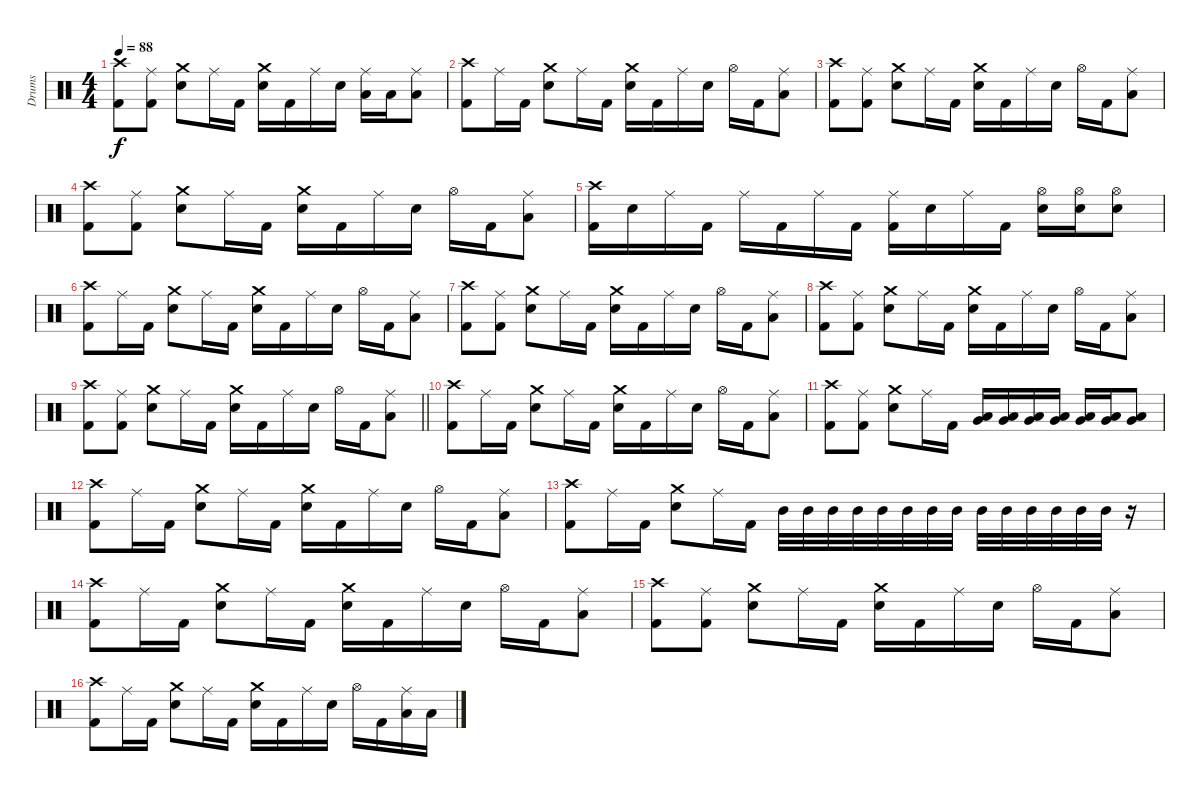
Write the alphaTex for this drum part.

\track ("Drums" "Drums") {instrument percussion}
\staff {score}
\articulation defaults
\ts (4 4)
\tempo 88
\clef neutral
\ks c
("Crash high (hit)" "Kick (hit) 2").8{dy f} ("Ride (middle)" "Kick (hit) 2").8 ("Crash medium (hit)" "Snare (hit) 2").8 "Ride (middle)".16 "Kick (hit) 2".16 ("Crash medium (hit)" "Snare (hit) 2").16 "Kick (hit) 2".16 "Ride (middle)".16 "Snare (hit) 2".16 ("Ride (middle)" "Low Tom (hit)").16 "Low Tom (hit)".16 ("Ride (middle)" "Low Tom (hit)").8 |
("Crash high (hit)" "Kick (hit) 2").8 "Ride (middle)".16 "Kick (hit) 2".16 ("Crash medium (hit)" "Snare (hit) 2").8 "Ride (middle)".16 "Kick (hit) 2".16 ("Crash medium (hit)" "Snare (hit) 2").16 "Kick (hit) 2".16 "Ride (middle)".16 "Snare (hit) 2".16 "Hi-Hat (open)".16 "Kick (hit) 2".16 ("Ride (middle)" "Low Tom (hit)").8 |
("Crash high (hit)" "Kick (hit) 2").8 ("Ride (middle)" "Kick (hit) 2").8 ("Crash medium (hit)" "Snare (hit) 2").8 "Ride (middle)".16 "Kick (hit) 2".16 ("Crash medium (hit)" "Snare (hit) 2").16 "Kick (hit) 2".16 "Ride (middle)".16 "Snare (hit) 2".16 "Hi-Hat (open)".16 "Kick (hit) 2".16 ("Ride (middle)" "Low Tom (hit)").8 |
("Crash high (hit)" "Kick (hit) 2").8 ("Ride (middle)" "Kick (hit) 2").8 ("Crash medium (hit)" "Snare (hit) 2").8 "Ride (middle)".16 "Kick (hit) 2".16 ("Crash medium (hit)" "Snare (hit) 2").16 "Kick (hit) 2".16 "Ride (middle)".16 "Snare (hit) 2".16 "Hi-Hat (open)".16 "Kick (hit) 2".16 ("Ride (middle)" "Low Tom (hit)").8 |
("Crash high (hit)" "Kick (hit) 2").16 "Snare (hit) 2".16 "Ride (middle)".16 "Kick (hit) 2".16 "Ride (middle)".16 "Kick (hit) 2".16 "Ride (middle)".16 "Kick (hit) 2".16 ("Ride (middle)" "Kick (hit) 2").16 "Snare (hit) 2".16 "Ride (middle)".16 "Kick (hit) 2".16 ("Hi-Hat (open)" "Snare (hit) 2").16 ("Hi-Hat (open)" "Snare (hit) 2").16 ("Hi-Hat (open)" "Snare (hit) 2").8 |
("Crash high (hit)" "Kick (hit) 2").8 "Ride (middle)".16 "Kick (hit) 2".16 ("Crash medium (hit)" "Snare (hit) 2").8 "Ride (middle)".16 "Kick (hit) 2".16 ("Crash medium (hit)" "Snare (hit) 2").16 "Kick (hit) 2".16 "Ride (middle)".16 "Snare (hit) 2".16 "Hi-Hat (open)".16 "Kick (hit) 2".16 ("Ride (middle)" "Low Tom (hit)").8 |
("Crash high (hit)" "Kick (hit) 2").8 ("Ride (middle)" "Kick (hit) 2").8 ("Crash medium (hit)" "Snare (hit) 2").8 "Ride (middle)".16 "Kick (hit) 2".16 ("Crash medium (hit)" "Snare (hit) 2").16 "Kick (hit) 2".16 "Ride (middle)".16 "Snare (hit) 2".16 "Hi-Hat (open)".16 "Kick (hit) 2".16 ("Ride (middle)" "Low Tom (hit)").8 |
("Crash high (hit)" "Kick (hit) 2").8 ("Ride (middle)" "Kick (hit) 2").8 ("Crash medium (hit)" "Snare (hit) 2").8 "Ride (middle)".16 "Kick (hit) 2".16 ("Crash medium (hit)" "Snare (hit) 2").16 "Kick (hit) 2".16 "Ride (middle)".16 "Snare (hit) 2".16 "Hi-Hat (open)".16 "Kick (hit) 2".16 ("Ride (middle)" "Low Tom (hit)").8 |
\barLineRight lightlight
("Crash high (hit)" "Kick (hit) 2").8 ("Ride (middle)" "Kick (hit) 2").8 ("Crash medium (hit)" "Snare (hit) 2").8 "Ride (middle)".16 "Kick (hit) 2".16 ("Crash medium (hit)" "Snare (hit) 2").16 "Kick (hit) 2".16 "Ride (middle)".16 "Snare (hit) 2".16 "Hi-Hat (open)".16 "Kick (hit) 2".16 ("Ride (middle)" "Low Tom (hit)").8 |
("Crash high (hit)" "Kick (hit) 2").8 "Ride (middle)".16 "Kick (hit) 2".16 ("Crash medium (hit)" "Snare (hit) 2").8 "Ride (middle)".16 "Kick (hit) 2".16 ("Crash medium (hit)" "Snare (hit) 2").16 "Kick (hit) 2".16 "Ride (middle)".16 "Snare (hit) 2".16 "Hi-Hat (open)".16 "Kick (hit) 2".16 ("Ride (middle)" "Low Tom (hit)").8 |
("Crash high (hit)" "Kick (hit) 2").8 ("Ride (middle)" "Kick (hit) 2").8 ("Crash medium (hit)" "Snare (hit) 2").8 "Ride (middle)".16 "Kick (hit) 2".16 ("Low Tom (hit)" "Very Low Tom (hit)").16 ("Low Tom (hit)" "Very Low Tom (hit)").16 ("Low Tom (hit)" "Very Low Tom (hit)").16 ("Low Tom (hit)" "Very Low Tom (hit)").16 ("Low Tom (hit)" "Very Low Tom (hit)").16 ("Low Tom (hit)" "Very Low Tom (hit)").16 ("Low Tom (hit)" "Very Low Tom (hit)").8 |
("Crash high (hit)" "Kick (hit) 2").8 "Ride (middle)".16 "Kick (hit) 2".16 ("Crash medium (hit)" "Snare (hit) 2").8 "Ride (middle)".16 "Kick (hit) 2".16 ("Crash medium (hit)" "Snare (hit) 2").16 "Kick (hit) 2".16 "Ride (middle)".16 "Snare (hit) 2".16 "Hi-Hat (open)".16 "Kick (hit) 2".16 ("Ride (middle)" "Low Tom (hit)").8 |
("Crash high (hit)" "Kick (hit) 2").8 "Ride (middle)".16 "Kick (hit) 2".16 ("Crash medium (hit)" "Snare (hit) 2").8 "Ride (middle)".16 "Kick (hit) 2".16 "Mid Tom (hit)".32 "Mid Tom (hit)".32 "Mid Tom (hit)".32 "Mid Tom (hit)".32 "Mid Tom (hit)".32 "Mid Tom (hit)".32 "Mid Tom (hit)".32 "Mid Tom (hit)".32 "Mid Tom (hit)".32 "Mid Tom (hit)".32 "Mid Tom (hit)".32 "Mid Tom (hit)".32 "Mid Tom (hit)".32 "Mid Tom (hit)".32 r.16 |
("Crash high (hit)" "Kick (hit) 2").8 "Ride (middle)".16 "Kick (hit) 2".16 ("Crash medium (hit)" "Snare (hit) 2").8 "Ride (middle)".16 "Kick (hit) 2".16 ("Crash medium (hit)" "Snare (hit) 2").16 "Kick (hit) 2".16 "Ride (middle)".16 "Snare (hit) 2".16 "Hi-Hat (open)".16 "Kick (hit) 2".16 ("Ride (middle)" "Low Tom (hit)").8 |
("Crash high (hit)" "Kick (hit) 2").8 ("Ride (middle)" "Kick (hit) 2").8 ("Crash medium (hit)" "Snare (hit) 2").8 "Ride (middle)".16 "Kick (hit) 2".16 ("Crash medium (hit)" "Snare (hit) 2").16 "Kick (hit) 2".16 "Ride (middle)".16 "Snare (hit) 2".16 "Hi-Hat (open)".16 "Kick (hit) 2".16 ("Ride (middle)" "Low Tom (hit)").8 |
("Crash high (hit)" "Kick (hit) 2").8 "Ride (middle)".16 "Kick (hit) 2".16 ("Crash medium (hit)" "Snare (hit) 2").8 "Ride (middle)".16 "Kick (hit) 2".16 ("Crash medium (hit)" "Snare (hit) 2").16 "Kick (hit) 2".16 "Ride (middle)".16 "Snare (hit) 2".16 "Hi-Hat (open)".16 "Kick (hit) 2".16 ("Ride (middle)" "Low Tom (hit)").16 "Low Tom (hit)".16
